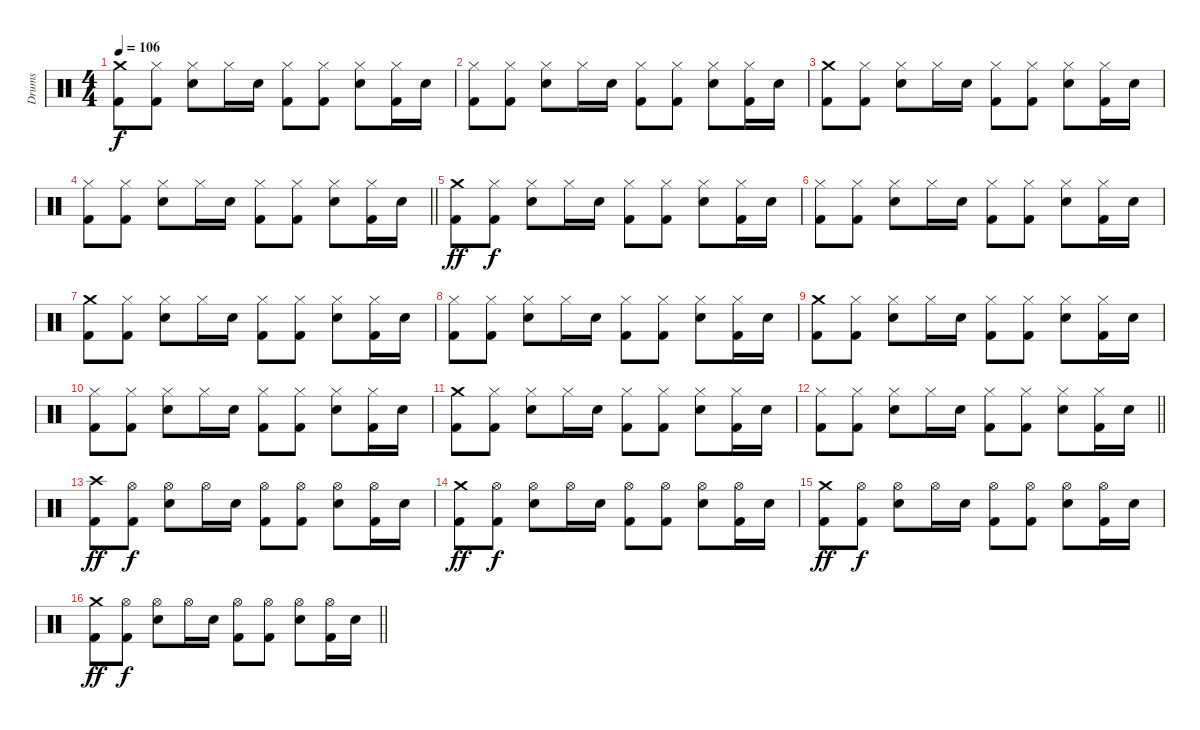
\track ("Drums" "Drums") {instrument percussion}
\staff {score}
\articulation defaults
\ts (4 4)
\tempo 106
\clef neutral
\ks c
("Crash medium (hit)" "Kick (hit) 2").8{dy f} ("Hi-Hat (closed)" "Kick (hit) 2").8 ("Hi-Hat (closed)" "Electric Snare (hit)").8 "Hi-Hat (closed)".16 "Electric Snare (hit)".16 ("Hi-Hat (closed)" "Kick (hit) 2").8 ("Hi-Hat (closed)" "Kick (hit) 2").8 ("Hi-Hat (closed)" "Electric Snare (hit)").8 ("Hi-Hat (closed)" "Kick (hit) 2").16 "Electric Snare (hit)".16 |
("Hi-Hat (closed)" "Kick (hit) 2").8 ("Hi-Hat (closed)" "Kick (hit) 2").8 ("Hi-Hat (closed)" "Electric Snare (hit)").8 "Hi-Hat (closed)".16 "Electric Snare (hit)".16 ("Hi-Hat (closed)" "Kick (hit) 2").8 ("Hi-Hat (closed)" "Kick (hit) 2").8 ("Hi-Hat (closed)" "Electric Snare (hit)").8 ("Hi-Hat (closed)" "Kick (hit) 2").16 "Electric Snare (hit)".16 |
("Crash medium (hit)" "Kick (hit) 2").8 ("Hi-Hat (closed)" "Kick (hit) 2").8 ("Hi-Hat (closed)" "Electric Snare (hit)").8 "Hi-Hat (closed)".16 "Electric Snare (hit)".16 ("Hi-Hat (closed)" "Kick (hit) 2").8 ("Hi-Hat (closed)" "Kick (hit) 2").8 ("Hi-Hat (closed)" "Electric Snare (hit)").8 ("Hi-Hat (closed)" "Kick (hit) 2").16 "Electric Snare (hit)".16 |
\barLineRight lightlight
("Hi-Hat (closed)" "Kick (hit) 2").8 ("Hi-Hat (closed)" "Kick (hit) 2").8 ("Hi-Hat (closed)" "Electric Snare (hit)").8 "Hi-Hat (closed)".16 "Electric Snare (hit)".16 ("Hi-Hat (closed)" "Kick (hit) 2").8 ("Hi-Hat (closed)" "Kick (hit) 2").8 ("Hi-Hat (closed)" "Electric Snare (hit)").8 ("Hi-Hat (closed)" "Kick (hit) 2").16 "Electric Snare (hit)".16 |
\section ("" "")
("Crash medium (hit)" "Kick (hit) 2").8{dy ff} ("Hi-Hat (closed)" "Kick (hit) 2").8{dy f} ("Hi-Hat (closed)" "Electric Snare (hit)").8 "Hi-Hat (closed)".16 "Electric Snare (hit)".16 ("Hi-Hat (closed)" "Kick (hit) 2").8 ("Hi-Hat (closed)" "Kick (hit) 2").8 ("Hi-Hat (closed)" "Electric Snare (hit)").8 ("Hi-Hat (closed)" "Kick (hit) 2").16 "Electric Snare (hit)".16 |
("Hi-Hat (closed)" "Kick (hit) 2").8 ("Hi-Hat (closed)" "Kick (hit) 2").8 ("Hi-Hat (closed)" "Electric Snare (hit)").8 "Hi-Hat (closed)".16 "Electric Snare (hit)".16 ("Hi-Hat (closed)" "Kick (hit) 2").8 ("Hi-Hat (closed)" "Kick (hit) 2").8 ("Hi-Hat (closed)" "Electric Snare (hit)").8 ("Hi-Hat (closed)" "Kick (hit) 2").16 "Electric Snare (hit)".16 |
("Crash medium (hit)" "Kick (hit) 2").8 ("Hi-Hat (closed)" "Kick (hit) 2").8 ("Hi-Hat (closed)" "Electric Snare (hit)").8 "Hi-Hat (closed)".16 "Electric Snare (hit)".16 ("Hi-Hat (closed)" "Kick (hit) 2").8 ("Hi-Hat (closed)" "Kick (hit) 2").8 ("Hi-Hat (closed)" "Electric Snare (hit)").8 ("Hi-Hat (closed)" "Kick (hit) 2").16 "Electric Snare (hit)".16 |
("Hi-Hat (closed)" "Kick (hit) 2").8 ("Hi-Hat (closed)" "Kick (hit) 2").8 ("Hi-Hat (closed)" "Electric Snare (hit)").8 "Hi-Hat (closed)".16 "Electric Snare (hit)".16 ("Hi-Hat (closed)" "Kick (hit) 2").8 ("Hi-Hat (closed)" "Kick (hit) 2").8 ("Hi-Hat (closed)" "Electric Snare (hit)").8 ("Hi-Hat (closed)" "Kick (hit) 2").16 "Electric Snare (hit)".16 |
("Crash medium (hit)" "Kick (hit) 2").8 ("Hi-Hat (closed)" "Kick (hit) 2").8 ("Hi-Hat (closed)" "Electric Snare (hit)").8 "Hi-Hat (closed)".16 "Electric Snare (hit)".16 ("Hi-Hat (closed)" "Kick (hit) 2").8 ("Hi-Hat (closed)" "Kick (hit) 2").8 ("Hi-Hat (closed)" "Electric Snare (hit)").8 ("Hi-Hat (closed)" "Kick (hit) 2").16 "Electric Snare (hit)".16 |
("Hi-Hat (closed)" "Kick (hit) 2").8 ("Hi-Hat (closed)" "Kick (hit) 2").8 ("Hi-Hat (closed)" "Electric Snare (hit)").8 "Hi-Hat (closed)".16 "Electric Snare (hit)".16 ("Hi-Hat (closed)" "Kick (hit) 2").8 ("Hi-Hat (closed)" "Kick (hit) 2").8 ("Hi-Hat (closed)" "Electric Snare (hit)").8 ("Hi-Hat (closed)" "Kick (hit) 2").16 "Electric Snare (hit)".16 |
("Crash medium (hit)" "Kick (hit) 2").8 ("Hi-Hat (closed)" "Kick (hit) 2").8 ("Hi-Hat (closed)" "Electric Snare (hit)").8 "Hi-Hat (closed)".16 "Electric Snare (hit)".16 ("Hi-Hat (closed)" "Kick (hit) 2").8 ("Hi-Hat (closed)" "Kick (hit) 2").8 ("Hi-Hat (closed)" "Electric Snare (hit)").8 ("Hi-Hat (closed)" "Kick (hit) 2").16 "Electric Snare (hit)".16 |
\barLineRight lightlight
("Hi-Hat (closed)" "Kick (hit) 2").8 ("Hi-Hat (closed)" "Kick (hit) 2").8 ("Hi-Hat (closed)" "Electric Snare (hit)").8 "Hi-Hat (closed)".16 "Electric Snare (hit)".16 ("Hi-Hat (closed)" "Kick (hit) 2").8 ("Hi-Hat (closed)" "Kick (hit) 2").8 ("Hi-Hat (closed)" "Electric Snare (hit)").8 ("Hi-Hat (closed)" "Kick (hit) 2").16 "Electric Snare (hit)".16 |
("Crash high (hit)" "Kick (hit) 2").8{dy ff} ("Hi-Hat (open)" "Kick (hit) 2").8{dy f} ("Hi-Hat (open)" "Electric Snare (hit)").8 "Hi-Hat (open)".16 "Electric Snare (hit)".16 ("Hi-Hat (open)" "Kick (hit) 2").8 ("Hi-Hat (open)" "Kick (hit) 2").8 ("Hi-Hat (open)" "Electric Snare (hit)").8 ("Hi-Hat (open)" "Kick (hit) 2").16 "Electric Snare (hit)".16 |
("Crash medium (hit)" "Kick (hit) 2").8{dy ff} ("Hi-Hat (open)" "Kick (hit) 2").8{dy f} ("Hi-Hat (open)" "Electric Snare (hit)").8 "Hi-Hat (open)".16 "Electric Snare (hit)".16 ("Hi-Hat (open)" "Kick (hit) 2").8 ("Hi-Hat (open)" "Kick (hit) 2").8 ("Hi-Hat (open)" "Electric Snare (hit)").8 ("Hi-Hat (open)" "Kick (hit) 2").16 "Electric Snare (hit)".16 |
("Crash medium (hit)" "Kick (hit) 2").8{dy ff} ("Hi-Hat (open)" "Kick (hit) 2").8{dy f} ("Hi-Hat (open)" "Electric Snare (hit)").8 "Hi-Hat (open)".16 "Electric Snare (hit)".16 ("Hi-Hat (open)" "Kick (hit) 2").8 ("Hi-Hat (open)" "Kick (hit) 2").8 ("Hi-Hat (open)" "Electric Snare (hit)").8 ("Hi-Hat (open)" "Kick (hit) 2").16 "Electric Snare (hit)".16 |
\barLineRight lightlight
("Crash medium (hit)" "Kick (hit) 2").8{dy ff} ("Hi-Hat (open)" "Kick (hit) 2").8{dy f} ("Hi-Hat (open)" "Electric Snare (hit)").8 "Hi-Hat (open)".16 "Electric Snare (hit)".16 ("Hi-Hat (open)" "Kick (hit) 2").8 ("Hi-Hat (open)" "Kick (hit) 2").8 ("Hi-Hat (open)" "Electric Snare (hit)").8 ("Hi-Hat (open)" "Kick (hit) 2").16 "Electric Snare (hit)".16
